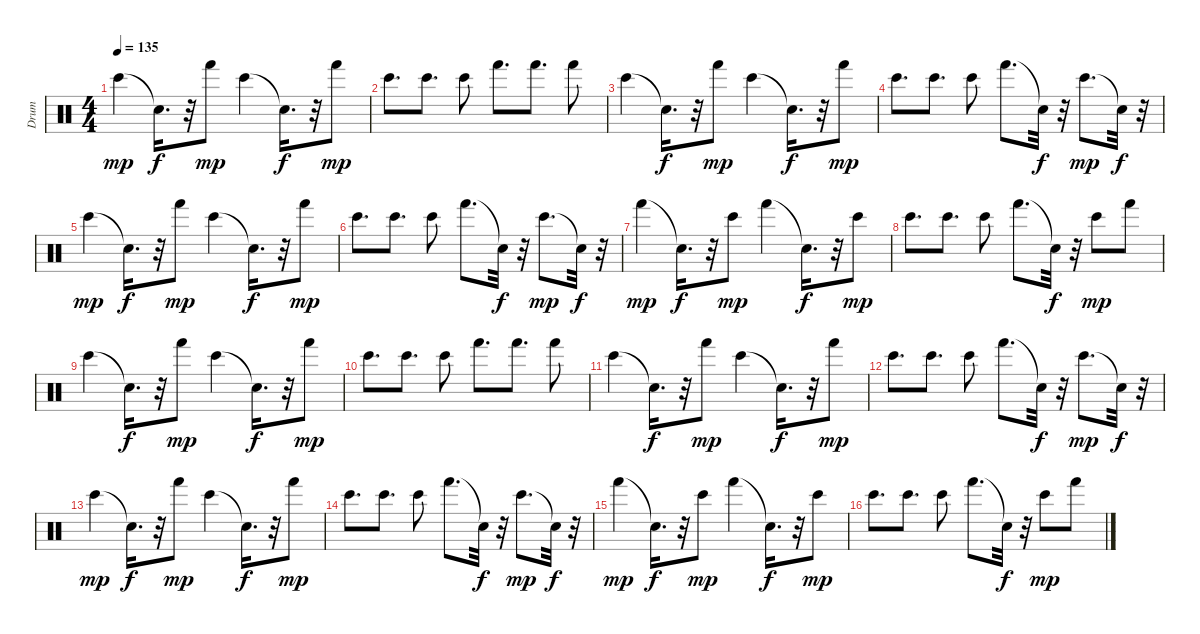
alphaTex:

\track ("Drum" "Drum") {instrument percussion}
\staff {score}
\articulation defaults
\ts (4 4)
\tempo 135
\clef neutral
\ks c "Bongo High (hit)".4{dy mp} "Snare (hit)"{t}.16{d dy f}
r.32 "Hand (hit)".8{dy mp} "Bongo High (hit)".4 "Snare (hit)"{t}.16{d dy f} r.32 "Hand (hit)".8{dy mp} |
"Bongo High (hit)".8{d} "Bongo High (hit)".8{d} "Bongo High (hit)".8 "Hand (hit)".8{d} "Hand (hit)".8{d} "Hand (hit)".8 |
"Bongo High (hit)".4 "Snare (hit)"{t}.16{d dy f} r.32 "Hand (hit)".8{dy mp} "Bongo High (hit)".4 "Snare (hit)"{t}.16{d dy f} r.32 "Hand (hit)".8{dy mp} |
"Bongo High (hit)".8{d} "Bongo High (hit)".8{d} "Bongo High (hit)".8 "Hand (hit)".8{d} "Snare (hit)"{t}.32{dy f} r.32 "Bongo High (hit)".8{d dy mp} "Snare (hit)"{t}.32{dy f} r.32 |
"Bongo High (hit)".4{dy mp} "Snare (hit)"{t}.16{d dy f} r.32 "Hand (hit)".8{dy mp} "Bongo High (hit)".4 "Snare (hit)"{t}.16{d dy f} r.32 "Hand (hit)".8{dy mp} |
"Bongo High (hit)".8{d} "Bongo High (hit)".8{d} "Bongo High (hit)".8 "Hand (hit)".8{d} "Snare (hit)"{t}.32{dy f} r.32 "Bongo High (hit)".8{d dy mp} "Snare (hit)"{t}.32{dy f} r.32 |
"Hand (hit)".4{dy mp} "Snare (hit)"{t}.16{d dy f} r.32 "Bongo High (hit)".8{dy mp} "Hand (hit)".4 "Snare (hit)"{t}.16{d dy f} r.32 "Bongo High (hit)".8{dy mp} |
"Bongo High (hit)".8{d} "Bongo High (hit)".8{d} "Bongo High (hit)".8 "Hand (hit)".8{d} "Snare (hit)"{t}.32{dy f} r.32 "Bongo High (hit)".8{dy mp} "Hand (hit)".8 |
"Bongo High (hit)".4 "Snare (hit)"{t}.16{d dy f} r.32 "Hand (hit)".8{dy mp} "Bongo High (hit)".4 "Snare (hit)"{t}.16{d dy f} r.32 "Hand (hit)".8{dy mp} |
"Bongo High (hit)".8{d} "Bongo High (hit)".8{d} "Bongo High (hit)".8 "Hand (hit)".8{d} "Hand (hit)".8{d} "Hand (hit)".8 |
"Bongo High (hit)".4 "Snare (hit)"{t}.16{d dy f} r.32 "Hand (hit)".8{dy mp} "Bongo High (hit)".4 "Snare (hit)"{t}.16{d dy f} r.32 "Hand (hit)".8{dy mp} |
"Bongo High (hit)".8{d} "Bongo High (hit)".8{d} "Bongo High (hit)".8 "Hand (hit)".8{d} "Snare (hit)"{t}.32{dy f} r.32 "Bongo High (hit)".8{d dy mp} "Snare (hit)"{t}.32{dy f} r.32 |
"Bongo High (hit)".4{dy mp} "Snare (hit)"{t}.16{d dy f} r.32 "Hand (hit)".8{dy mp} "Bongo High (hit)".4 "Snare (hit)"{t}.16{d dy f} r.32 "Hand (hit)".8{dy mp} |
"Bongo High (hit)".8{d} "Bongo High (hit)".8{d} "Bongo High (hit)".8 "Hand (hit)".8{d} "Snare (hit)"{t}.32{dy f} r.32 "Bongo High (hit)".8{d dy mp} "Snare (hit)"{t}.32{dy f} r.32 |
"Hand (hit)".4{dy mp} "Snare (hit)"{t}.16{d dy f} r.32 "Bongo High (hit)".8{dy mp} "Hand (hit)".4 "Snare (hit)"{t}.16{d dy f} r.32 "Bongo High (hit)".8{dy mp} |
"Bongo High (hit)".8{d} "Bongo High (hit)".8{d} "Bongo High (hit)".8 "Hand (hit)".8{d} "Snare (hit)"{t}.32{dy f} r.32 "Bongo High (hit)".8{dy mp} "Hand (hit)".8
